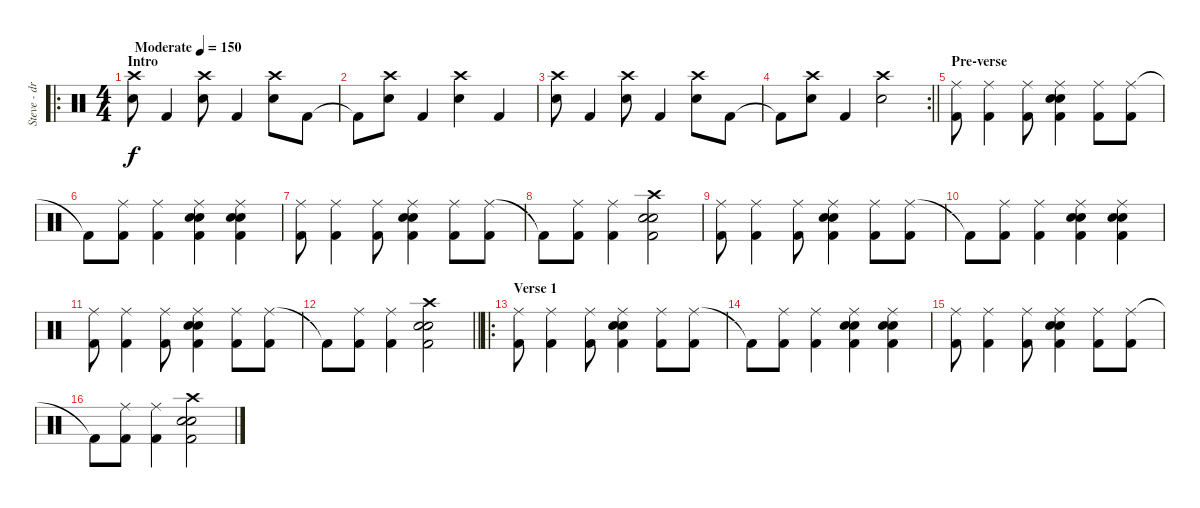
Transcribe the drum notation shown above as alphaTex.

\track ("Steve - drums" "Steve - dr") {instrument percussion}
\staff {score}
\articulation defaults
\ro
\ts (4 4)
\section ("" "Intro")
\tempo (150 "Moderate")
\clef neutral
\ks c
("Crash high (hit)" "Snare (hit) 2").8{dy f} "Kick (hit) 2".4 ("Crash high (hit)" "Snare (hit) 2").8 "Kick (hit) 2".4 ("Crash high (hit)" "Snare (hit) 2").8 "Kick (hit) 2".8 |
"Kick (hit) 2"{t}.8 ("Crash high (hit)" "Snare (hit) 2").8 "Kick (hit) 2".4 ("Crash high (hit)" "Snare (hit) 2").4 "Kick (hit) 2".4 |
("Crash high (hit)" "Snare (hit) 2").8 "Kick (hit) 2".4 ("Crash high (hit)" "Snare (hit) 2").8 "Kick (hit) 2".4 ("Crash high (hit)" "Snare (hit) 2").8 "Kick (hit) 2".8 |
\rc 2
\barLineRight lightlight "Kick (hit) 2"{t}.8
("Crash high (hit)" "Snare (hit) 2").8 "Kick (hit) 2".4 ("Crash high (hit)" "Snare (hit) 2").2 |
\section ("" "Pre-verse")
("Ride (middle)" "Kick (hit) 2").8 ("Ride (middle)" "Kick (hit) 2").4 ("Ride (middle)" "Kick (hit) 2").8 ("Electric Snare (hit)" "Ride (middle)" "Kick (hit) 2" "Snare (hit) 2").4 ("Ride (middle)" "Kick (hit) 2").8 ("Ride (middle)" "Kick (hit) 2").8 |
"Kick (hit) 2"{t}.8 ("Ride (middle)" "Kick (hit) 2").8 ("Ride (middle)" "Kick (hit) 2").4 ("Electric Snare (hit)" "Ride (middle)" "Kick (hit) 2" "Snare (hit) 2").4 ("Electric Snare (hit)" "Ride (middle)" "Kick (hit) 2" "Snare (hit) 2").4 |
("Ride (middle)" "Kick (hit) 2").8 ("Ride (middle)" "Kick (hit) 2").4 ("Ride (middle)" "Kick (hit) 2").8 ("Electric Snare (hit)" "Ride (middle)" "Kick (hit) 2" "Snare (hit) 2").4 ("Ride (middle)" "Kick (hit) 2").8 ("Ride (middle)" "Kick (hit) 2").8 |
"Kick (hit) 2"{t}.8 ("Ride (middle)" "Kick (hit) 2").8 ("Ride (middle)" "Kick (hit) 2").4 ("Electric Snare (hit)" "Crash high (hit)" "Kick (hit) 2" "Snare (hit) 2").2 |
("Ride (middle)" "Kick (hit) 2").8 ("Ride (middle)" "Kick (hit) 2").4 ("Ride (middle)" "Kick (hit) 2").8 ("Electric Snare (hit)" "Ride (middle)" "Kick (hit) 2" "Snare (hit) 2").4 ("Ride (middle)" "Kick (hit) 2").8 ("Ride (middle)" "Kick (hit) 2").8 |
"Kick (hit) 2"{t}.8 ("Ride (middle)" "Kick (hit) 2").8 ("Ride (middle)" "Kick (hit) 2").4 ("Electric Snare (hit)" "Ride (middle)" "Kick (hit) 2" "Snare (hit) 2").4 ("Electric Snare (hit)" "Ride (middle)" "Kick (hit) 2" "Snare (hit) 2").4 |
("Ride (middle)" "Kick (hit) 2").8 ("Ride (middle)" "Kick (hit) 2").4 ("Ride (middle)" "Kick (hit) 2").8 ("Electric Snare (hit)" "Ride (middle)" "Kick (hit) 2" "Snare (hit) 2").4 ("Ride (middle)" "Kick (hit) 2").8 ("Ride (middle)" "Kick (hit) 2").8 |
\barLineRight lightlight "Kick (hit) 2"{t}.8
("Ride (middle)" "Kick (hit) 2").8 ("Ride (middle)" "Kick (hit) 2").4 ("Electric Snare (hit)" "Crash high (hit)" "Kick (hit) 2" "Snare (hit) 2").2 |
\ro
\section ("" "Verse 1")
("Ride (middle)" "Kick (hit) 2").8 ("Ride (middle)" "Kick (hit) 2").4 ("Ride (middle)" "Kick (hit) 2").8 ("Electric Snare (hit)" "Ride (middle)" "Kick (hit) 2" "Snare (hit) 2").4 ("Ride (middle)" "Kick (hit) 2").8 ("Ride (middle)" "Kick (hit) 2").8 |
"Kick (hit) 2"{t}.8 ("Ride (middle)" "Kick (hit) 2").8 ("Ride (middle)" "Kick (hit) 2").4 ("Electric Snare (hit)" "Ride (middle)" "Kick (hit) 2" "Snare (hit) 2").4 ("Electric Snare (hit)" "Ride (middle)" "Kick (hit) 2" "Snare (hit) 2").4 |
("Ride (middle)" "Kick (hit) 2").8 ("Ride (middle)" "Kick (hit) 2").4 ("Ride (middle)" "Kick (hit) 2").8 ("Electric Snare (hit)" "Ride (middle)" "Kick (hit) 2" "Snare (hit) 2").4 ("Ride (middle)" "Kick (hit) 2").8 ("Ride (middle)" "Kick (hit) 2").8 |
"Kick (hit) 2"{t}.8 ("Ride (middle)" "Kick (hit) 2").8 ("Ride (middle)" "Kick (hit) 2").4 ("Electric Snare (hit)" "Crash high (hit)" "Kick (hit) 2" "Snare (hit) 2").2
